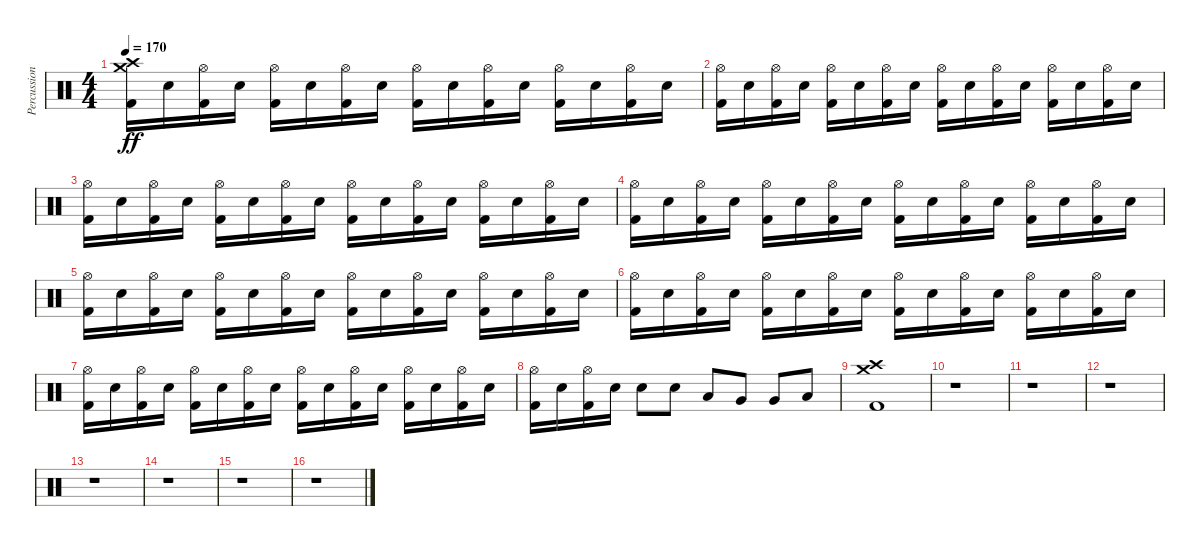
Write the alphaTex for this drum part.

\track ("Percussion" "Percussion") {instrument percussion}
\staff {score}
\articulation defaults
\ts (4 4)
\tempo 170
\clef neutral
\ks c
("Kick (hit) 2" "Crash medium (hit)" "Crash high (hit)").16{dy ff} "Electric Snare (hit)".16 ("Kick (hit) 2" "Hi-Hat (open)").16 "Electric Snare (hit)".16 ("Kick (hit) 2" "Hi-Hat (open)").16 "Electric Snare (hit)".16 ("Kick (hit) 2" "Hi-Hat (open)").16 "Electric Snare (hit)".16 ("Kick (hit) 2" "Hi-Hat (open)").16 "Electric Snare (hit)".16 ("Kick (hit) 2" "Hi-Hat (open)").16 "Electric Snare (hit)".16 ("Kick (hit) 2" "Hi-Hat (open)").16 "Electric Snare (hit)".16 ("Kick (hit) 2" "Hi-Hat (open)").16 "Electric Snare (hit)".16 |
("Kick (hit) 2" "Hi-Hat (open)").16 "Electric Snare (hit)".16 ("Kick (hit) 2" "Hi-Hat (open)").16 "Electric Snare (hit)".16 ("Kick (hit) 2" "Hi-Hat (open)").16 "Electric Snare (hit)".16 ("Kick (hit) 2" "Hi-Hat (open)").16 "Electric Snare (hit)".16 ("Kick (hit) 2" "Hi-Hat (open)").16 "Electric Snare (hit)".16 ("Kick (hit) 2" "Hi-Hat (open)").16 "Electric Snare (hit)".16 ("Kick (hit) 2" "Hi-Hat (open)").16 "Electric Snare (hit)".16 ("Kick (hit) 2" "Hi-Hat (open)").16 "Electric Snare (hit)".16 |
("Kick (hit) 2" "Hi-Hat (open)").16 "Electric Snare (hit)".16 ("Kick (hit) 2" "Hi-Hat (open)").16 "Electric Snare (hit)".16 ("Kick (hit) 2" "Hi-Hat (open)").16 "Electric Snare (hit)".16 ("Kick (hit) 2" "Hi-Hat (open)").16 "Electric Snare (hit)".16 ("Kick (hit) 2" "Hi-Hat (open)").16 "Electric Snare (hit)".16 ("Kick (hit) 2" "Hi-Hat (open)").16 "Electric Snare (hit)".16 ("Kick (hit) 2" "Hi-Hat (open)").16 "Electric Snare (hit)".16 ("Kick (hit) 2" "Hi-Hat (open)").16 "Electric Snare (hit)".16 |
("Kick (hit) 2" "Hi-Hat (open)").16 "Electric Snare (hit)".16 ("Kick (hit) 2" "Hi-Hat (open)").16 "Electric Snare (hit)".16 ("Kick (hit) 2" "Hi-Hat (open)").16 "Electric Snare (hit)".16 ("Kick (hit) 2" "Hi-Hat (open)").16 "Electric Snare (hit)".16 ("Kick (hit) 2" "Hi-Hat (open)").16 "Electric Snare (hit)".16 ("Kick (hit) 2" "Hi-Hat (open)").16 "Electric Snare (hit)".16 ("Kick (hit) 2" "Hi-Hat (open)").16 "Electric Snare (hit)".16 ("Kick (hit) 2" "Hi-Hat (open)").16 "Electric Snare (hit)".16 |
("Kick (hit) 2" "Hi-Hat (open)").16 "Electric Snare (hit)".16 ("Kick (hit) 2" "Hi-Hat (open)").16 "Electric Snare (hit)".16 ("Kick (hit) 2" "Hi-Hat (open)").16 "Electric Snare (hit)".16 ("Kick (hit) 2" "Hi-Hat (open)").16 "Electric Snare (hit)".16 ("Kick (hit) 2" "Hi-Hat (open)").16 "Electric Snare (hit)".16 ("Kick (hit) 2" "Hi-Hat (open)").16 "Electric Snare (hit)".16 ("Kick (hit) 2" "Hi-Hat (open)").16 "Electric Snare (hit)".16 ("Kick (hit) 2" "Hi-Hat (open)").16 "Electric Snare (hit)".16 |
("Kick (hit) 2" "Hi-Hat (open)").16 "Electric Snare (hit)".16 ("Kick (hit) 2" "Hi-Hat (open)").16 "Electric Snare (hit)".16 ("Kick (hit) 2" "Hi-Hat (open)").16 "Electric Snare (hit)".16 ("Kick (hit) 2" "Hi-Hat (open)").16 "Electric Snare (hit)".16 ("Kick (hit) 2" "Hi-Hat (open)").16 "Electric Snare (hit)".16 ("Kick (hit) 2" "Hi-Hat (open)").16 "Electric Snare (hit)".16 ("Kick (hit) 2" "Hi-Hat (open)").16 "Electric Snare (hit)".16 ("Kick (hit) 2" "Hi-Hat (open)").16 "Electric Snare (hit)".16 |
("Kick (hit) 2" "Hi-Hat (open)").16 "Electric Snare (hit)".16 ("Kick (hit) 2" "Hi-Hat (open)").16 "Electric Snare (hit)".16 ("Kick (hit) 2" "Hi-Hat (open)").16 "Electric Snare (hit)".16 ("Kick (hit) 2" "Hi-Hat (open)").16 "Electric Snare (hit)".16 ("Kick (hit) 2" "Hi-Hat (open)").16 "Electric Snare (hit)".16 ("Kick (hit) 2" "Hi-Hat (open)").16 "Electric Snare (hit)".16 ("Kick (hit) 2" "Hi-Hat (open)").16 "Electric Snare (hit)".16 ("Kick (hit) 2" "Hi-Hat (open)").16 "Electric Snare (hit)".16 |
("Kick (hit) 2" "Hi-Hat (open)").16 "Electric Snare (hit)".16 ("Kick (hit) 2" "Hi-Hat (open)").16 "Electric Snare (hit)".16 "Electric Snare (hit)".8 "Electric Snare (hit)".8 "Low Tom (hit)".8 "Very Low Tom (hit)".8 "Very Low Tom (hit)".8 "Low Floor Tom (hit)".8 |
("Kick (hit) 2" "Crash high (hit)" "Crash medium (hit)").1 |
r.1 |
r.1 |
r.1 |
r.1 |
r.1 |
r.1 |
r.1
